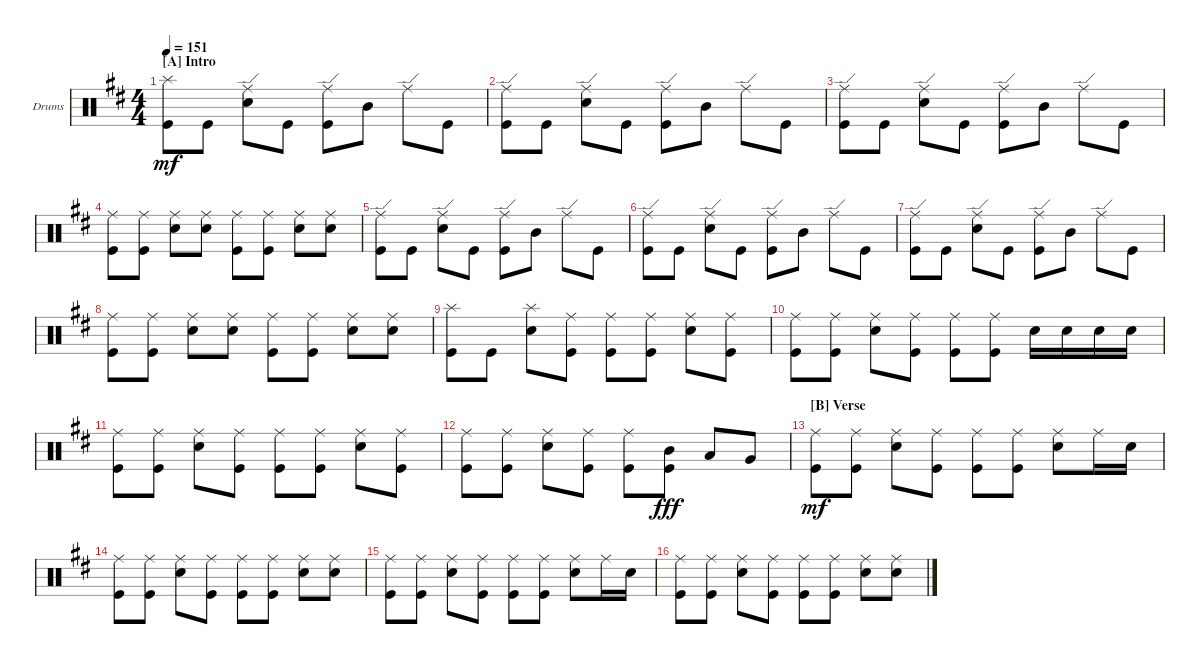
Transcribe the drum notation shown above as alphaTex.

\defaultSystemsLayout 4
\bracketExtendMode groupsimilarinstruments
\firstSystemTrackNameOrientation horizontal
\otherSystemsTrackNameOrientation horizontal
\track ("Drumkit" "Drums") {instrument percussion}
\staff {score}
\articulation defaults
\ts (4 4)
\section ("A" "Intro")
\tempo 151
\clef neutral
\ks bminor
("Kick (hit)" "Splash (hit)").8{dy mf} "Kick (hit)".8 ("Snare (hit) 2" "Ride (edge)").8 "Kick (hit)".8 ("Kick (hit)" "Ride (edge)").8 "Mid Tom (hit)".8 "Ride (edge)".8 "Kick (hit)".8 |
("Kick (hit)" "Ride (edge)").8 "Kick (hit)".8 ("Snare (hit) 2" "Ride (edge)").8 "Kick (hit)".8 ("Kick (hit)" "Ride (edge)").8 "Mid Tom (hit)".8 "Ride (edge)".8 "Kick (hit)".8 |
("Kick (hit)" "Ride (edge)").8 "Kick (hit)".8 ("Snare (hit) 2" "Ride (edge)").8 "Kick (hit)".8 ("Kick (hit)" "Ride (edge)").8 "Mid Tom (hit)".8 "Ride (edge)".8 "Kick (hit)".8 |
("Ride (middle)" "Kick (hit)").8 ("Ride (middle)" "Kick (hit)").8 ("Ride (middle)" "Snare (hit) 2").8 ("Ride (middle)" "Snare (hit) 2").8 ("Ride (middle)" "Kick (hit)").8 ("Ride (middle)" "Kick (hit)").8 ("Ride (middle)" "Snare (hit) 2").8 ("Ride (middle)" "Snare (hit) 2").8 |
("Kick (hit)" "Ride (edge)").8 "Kick (hit)".8 ("Snare (hit) 2" "Ride (edge)").8 "Kick (hit)".8 ("Kick (hit)" "Ride (edge)").8 "Mid Tom (hit)".8 "Ride (edge)".8 "Kick (hit)".8 |
("Kick (hit)" "Ride (edge)").8 "Kick (hit)".8 ("Snare (hit) 2" "Ride (edge)").8 "Kick (hit)".8 ("Kick (hit)" "Ride (edge)").8 "Mid Tom (hit)".8 "Ride (edge)".8 "Kick (hit)".8 |
("Kick (hit)" "Ride (edge)").8 "Kick (hit)".8 ("Snare (hit) 2" "Ride (edge)").8 "Kick (hit)".8 ("Kick (hit)" "Ride (edge)").8 "Mid Tom (hit)".8 "Ride (edge)".8 "Kick (hit)".8 |
("Ride (middle)" "Kick (hit)").8 ("Ride (middle)" "Kick (hit)").8 ("Ride (middle)" "Snare (hit) 2").8 ("Ride (middle)" "Snare (hit) 2").8 ("Ride (middle)" "Kick (hit)").8 ("Ride (middle)" "Kick (hit)").8 ("Ride (middle)" "Snare (hit) 2").8 ("Ride (middle)" "Snare (hit) 2").8 |
("Kick (hit)" "Splash (hit)").8 "Kick (hit)".8 ("Snare (hit) 2" "Splash (hit)").8 ("Ride (middle)" "Kick (hit)").8 ("Ride (middle)" "Kick (hit)").8 ("Ride (middle)" "Kick (hit)").8 ("Ride (middle)" "Snare (hit) 2").8 ("Ride (middle)" "Kick (hit)").8 |
("Ride (middle)" "Kick (hit)").8 ("Ride (middle)" "Kick (hit)").8 ("Ride (middle)" "Snare (hit) 2").8 ("Ride (middle)" "Kick (hit)").8 ("Ride (middle)" "Kick (hit)").8 ("Ride (middle)" "Kick (hit)").8 "Snare (hit) 2".16 "Snare (hit) 2".16 "Snare (hit) 2".16 "Snare (hit) 2".16 |
("Ride (middle)" "Kick (hit)").8 ("Ride (middle)" "Kick (hit)").8 ("Ride (middle)" "Snare (hit) 2").8 ("Ride (middle)" "Kick (hit)").8 ("Ride (middle)" "Kick (hit)").8 ("Ride (middle)" "Kick (hit)").8 ("Ride (middle)" "Snare (hit) 2").8 ("Ride (middle)" "Kick (hit)").8 |
("Ride (middle)" "Kick (hit)").8 ("Ride (middle)" "Kick (hit)").8 ("Ride (middle)" "Snare (hit) 2").8 ("Ride (middle)" "Kick (hit)").8 ("Ride (middle)" "Kick (hit)").8 ("Kick (hit)" "Mid Tom (hit)").8{dy fff} "Low Tom (hit)".8 "Very Low Tom (hit)".8 |
\section ("B" "Verse")
("Kick (hit)" "Ride (middle)").8{dy mf} ("Kick (hit)" "Ride (middle)").8 ("Snare (hit) 2" "Ride (middle)").8 ("Kick (hit)" "Ride (middle)").8 ("Kick (hit)" "Ride (middle)").8 ("Kick (hit)" "Ride (middle)").8 ("Snare (hit) 2" "Ride (middle)").8 "Ride (middle)".16 "Snare (hit) 2".16 |
("Kick (hit)" "Ride (middle)").8 ("Kick (hit)" "Ride (middle)").8 ("Ride (middle)" "Snare (hit) 2").8 ("Ride (middle)" "Kick (hit)").8 ("Ride (middle)" "Kick (hit)").8 ("Ride (middle)" "Kick (hit)").8 ("Ride (middle)" "Snare (hit) 2").8 ("Ride (middle)" "Snare (hit) 2").8 |
("Kick (hit)" "Ride (middle)").8 ("Kick (hit)" "Ride (middle)").8 ("Snare (hit) 2" "Ride (middle)").8 ("Kick (hit)" "Ride (middle)").8 ("Kick (hit)" "Ride (middle)").8 ("Kick (hit)" "Ride (middle)").8 ("Snare (hit) 2" "Ride (middle)").8 "Ride (middle)".16 "Snare (hit) 2".16 |
("Kick (hit)" "Ride (middle)").8 ("Kick (hit)" "Ride (middle)").8 ("Ride (middle)" "Snare (hit) 2").8 ("Ride (middle)" "Kick (hit)").8 ("Ride (middle)" "Kick (hit)").8 ("Ride (middle)" "Kick (hit)").8 ("Ride (middle)" "Snare (hit) 2").8 ("Ride (middle)" "Snare (hit) 2").8
